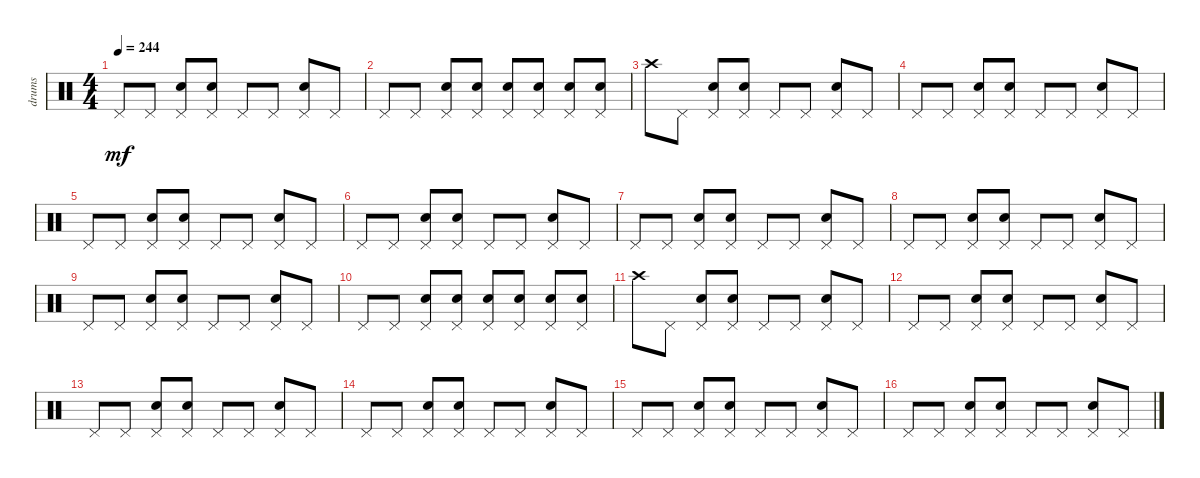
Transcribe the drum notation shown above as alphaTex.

\track ("drums" "drums") {instrument percussion}
\staff {score}
\articulation defaults
\ts (4 4)
\tempo 244
\clef neutral
\ks c "Pedal Hi-Hat (hit)".8{dy mf} "Pedal Hi-Hat (hit)".8
("Pedal Hi-Hat (hit)" "Snare (hit) 2").8 ("Pedal Hi-Hat (hit)" "Snare (hit) 2").8 "Pedal Hi-Hat (hit)".8 "Pedal Hi-Hat (hit)".8 ("Pedal Hi-Hat (hit)" "Snare (hit) 2").8 "Pedal Hi-Hat (hit)".8 |
"Pedal Hi-Hat (hit)".8 "Pedal Hi-Hat (hit)".8 ("Pedal Hi-Hat (hit)" "Snare (hit) 2").8 ("Pedal Hi-Hat (hit)" "Snare (hit) 2").8 ("Pedal Hi-Hat (hit)" "Snare (hit) 2").8 ("Pedal Hi-Hat (hit)" "Snare (hit) 2").8 ("Pedal Hi-Hat (hit)" "Snare (hit) 2").8 ("Pedal Hi-Hat (hit)" "Snare (hit) 2").8 |
"Crash high (hit)".8 "Pedal Hi-Hat (hit)".8 ("Pedal Hi-Hat (hit)" "Snare (hit) 2").8 ("Pedal Hi-Hat (hit)" "Snare (hit) 2").8 "Pedal Hi-Hat (hit)".8 "Pedal Hi-Hat (hit)".8 ("Pedal Hi-Hat (hit)" "Snare (hit) 2").8 "Pedal Hi-Hat (hit)".8 |
"Pedal Hi-Hat (hit)".8 "Pedal Hi-Hat (hit)".8 ("Pedal Hi-Hat (hit)" "Snare (hit) 2").8 ("Pedal Hi-Hat (hit)" "Snare (hit) 2").8 "Pedal Hi-Hat (hit)".8 "Pedal Hi-Hat (hit)".8 ("Pedal Hi-Hat (hit)" "Snare (hit) 2").8 "Pedal Hi-Hat (hit)".8 |
"Pedal Hi-Hat (hit)".8 "Pedal Hi-Hat (hit)".8 ("Pedal Hi-Hat (hit)" "Snare (hit) 2").8 ("Pedal Hi-Hat (hit)" "Snare (hit) 2").8 "Pedal Hi-Hat (hit)".8 "Pedal Hi-Hat (hit)".8 ("Pedal Hi-Hat (hit)" "Snare (hit) 2").8 "Pedal Hi-Hat (hit)".8 |
"Pedal Hi-Hat (hit)".8 "Pedal Hi-Hat (hit)".8 ("Pedal Hi-Hat (hit)" "Snare (hit) 2").8 ("Pedal Hi-Hat (hit)" "Snare (hit) 2").8 "Pedal Hi-Hat (hit)".8 "Pedal Hi-Hat (hit)".8 ("Pedal Hi-Hat (hit)" "Snare (hit) 2").8 "Pedal Hi-Hat (hit)".8 |
"Pedal Hi-Hat (hit)".8 "Pedal Hi-Hat (hit)".8 ("Pedal Hi-Hat (hit)" "Snare (hit) 2").8 ("Pedal Hi-Hat (hit)" "Snare (hit) 2").8 "Pedal Hi-Hat (hit)".8 "Pedal Hi-Hat (hit)".8 ("Pedal Hi-Hat (hit)" "Snare (hit) 2").8 "Pedal Hi-Hat (hit)".8 |
"Pedal Hi-Hat (hit)".8 "Pedal Hi-Hat (hit)".8 ("Pedal Hi-Hat (hit)" "Snare (hit) 2").8 ("Pedal Hi-Hat (hit)" "Snare (hit) 2").8 "Pedal Hi-Hat (hit)".8 "Pedal Hi-Hat (hit)".8 ("Pedal Hi-Hat (hit)" "Snare (hit) 2").8 "Pedal Hi-Hat (hit)".8 |
"Pedal Hi-Hat (hit)".8 "Pedal Hi-Hat (hit)".8 ("Pedal Hi-Hat (hit)" "Snare (hit) 2").8 ("Pedal Hi-Hat (hit)" "Snare (hit) 2").8 "Pedal Hi-Hat (hit)".8 "Pedal Hi-Hat (hit)".8 ("Pedal Hi-Hat (hit)" "Snare (hit) 2").8 "Pedal Hi-Hat (hit)".8 |
"Pedal Hi-Hat (hit)".8 "Pedal Hi-Hat (hit)".8 ("Pedal Hi-Hat (hit)" "Snare (hit) 2").8 ("Pedal Hi-Hat (hit)" "Snare (hit) 2").8 ("Pedal Hi-Hat (hit)" "Snare (hit) 2").8 ("Pedal Hi-Hat (hit)" "Snare (hit) 2").8 ("Pedal Hi-Hat (hit)" "Snare (hit) 2").8 ("Pedal Hi-Hat (hit)" "Snare (hit) 2").8 |
"Crash high (hit)".8 "Pedal Hi-Hat (hit)".8 ("Pedal Hi-Hat (hit)" "Snare (hit) 2").8 ("Pedal Hi-Hat (hit)" "Snare (hit) 2").8 "Pedal Hi-Hat (hit)".8 "Pedal Hi-Hat (hit)".8 ("Pedal Hi-Hat (hit)" "Snare (hit) 2").8 "Pedal Hi-Hat (hit)".8 |
"Pedal Hi-Hat (hit)".8 "Pedal Hi-Hat (hit)".8 ("Pedal Hi-Hat (hit)" "Snare (hit) 2").8 ("Pedal Hi-Hat (hit)" "Snare (hit) 2").8 "Pedal Hi-Hat (hit)".8 "Pedal Hi-Hat (hit)".8 ("Pedal Hi-Hat (hit)" "Snare (hit) 2").8 "Pedal Hi-Hat (hit)".8 |
"Pedal Hi-Hat (hit)".8 "Pedal Hi-Hat (hit)".8 ("Pedal Hi-Hat (hit)" "Snare (hit) 2").8 ("Pedal Hi-Hat (hit)" "Snare (hit) 2").8 "Pedal Hi-Hat (hit)".8 "Pedal Hi-Hat (hit)".8 ("Pedal Hi-Hat (hit)" "Snare (hit) 2").8 "Pedal Hi-Hat (hit)".8 |
"Pedal Hi-Hat (hit)".8 "Pedal Hi-Hat (hit)".8 ("Pedal Hi-Hat (hit)" "Snare (hit) 2").8 ("Pedal Hi-Hat (hit)" "Snare (hit) 2").8 "Pedal Hi-Hat (hit)".8 "Pedal Hi-Hat (hit)".8 ("Pedal Hi-Hat (hit)" "Snare (hit) 2").8 "Pedal Hi-Hat (hit)".8 |
"Pedal Hi-Hat (hit)".8 "Pedal Hi-Hat (hit)".8 ("Pedal Hi-Hat (hit)" "Snare (hit) 2").8 ("Pedal Hi-Hat (hit)" "Snare (hit) 2").8 "Pedal Hi-Hat (hit)".8 "Pedal Hi-Hat (hit)".8 ("Pedal Hi-Hat (hit)" "Snare (hit) 2").8 "Pedal Hi-Hat (hit)".8 |
"Pedal Hi-Hat (hit)".8 "Pedal Hi-Hat (hit)".8 ("Pedal Hi-Hat (hit)" "Snare (hit) 2").8 ("Pedal Hi-Hat (hit)" "Snare (hit) 2").8 "Pedal Hi-Hat (hit)".8 "Pedal Hi-Hat (hit)".8 ("Pedal Hi-Hat (hit)" "Snare (hit) 2").8 "Pedal Hi-Hat (hit)".8
